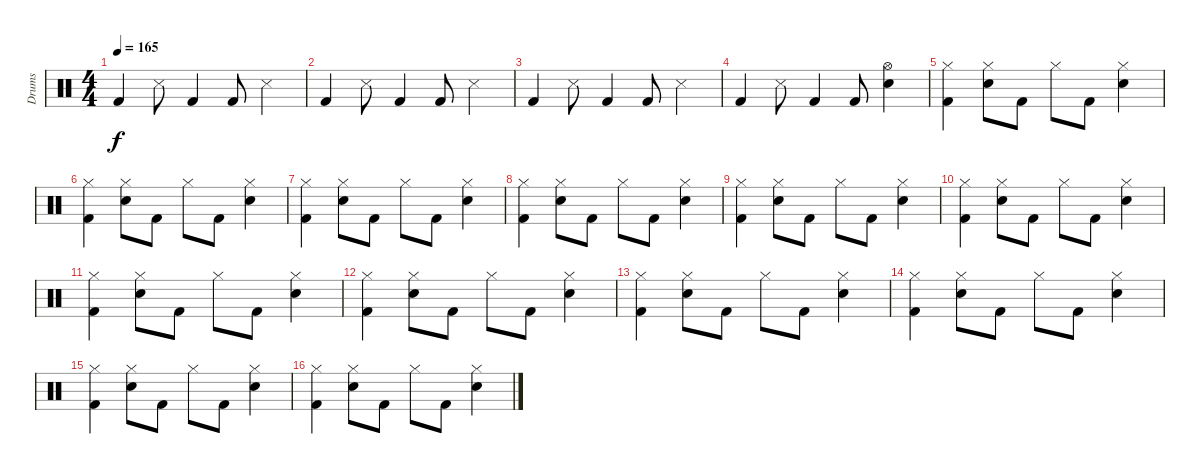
\track ("Drums" "Drums") {instrument percussion}
\staff {score}
\articulation defaults
\ts (4 4)
\tempo 165
\clef neutral
\ks c "Kick (hit) 2".4{dy f} "Snare (side stick) 3".8 "Kick (hit) 2".4 "Kick (hit) 2".8 "Snare (side stick) 3".4
|
"Kick (hit) 2".4 "Snare (side stick) 3".8 "Kick (hit) 2".4 "Kick (hit) 2".8 "Snare (side stick) 3".4 |
"Kick (hit) 2".4 "Snare (side stick) 3".8 "Kick (hit) 2".4 "Kick (hit) 2".8 "Snare (side stick) 3".4 |
"Kick (hit) 2".4 "Snare (side stick) 3".8 "Kick (hit) 2".4 "Kick (hit) 2".8 ("Hi-Hat (open)" "Electric Snare (hit)").4 |
("Hi-Hat (closed)" "Kick (hit) 2").4 ("Hi-Hat (closed)" "Electric Snare (hit)").8 "Kick (hit) 2".8 "Hi-Hat (closed)".8 "Kick (hit) 2".8 ("Hi-Hat (closed)" "Electric Snare (hit)").4 |
("Hi-Hat (closed)" "Kick (hit) 2").4 ("Hi-Hat (closed)" "Electric Snare (hit)").8 "Kick (hit) 2".8 "Hi-Hat (closed)".8 "Kick (hit) 2".8 ("Hi-Hat (closed)" "Electric Snare (hit)").4 |
("Hi-Hat (closed)" "Kick (hit) 2").4 ("Hi-Hat (closed)" "Electric Snare (hit)").8 "Kick (hit) 2".8 "Hi-Hat (closed)".8 "Kick (hit) 2".8 ("Hi-Hat (closed)" "Electric Snare (hit)").4 |
("Hi-Hat (closed)" "Kick (hit) 2").4 ("Hi-Hat (closed)" "Electric Snare (hit)").8 "Kick (hit) 2".8 "Hi-Hat (closed)".8 "Kick (hit) 2".8 ("Hi-Hat (closed)" "Electric Snare (hit)").4 |
("Hi-Hat (closed)" "Kick (hit) 2").4 ("Hi-Hat (closed)" "Electric Snare (hit)").8 "Kick (hit) 2".8 "Hi-Hat (closed)".8 "Kick (hit) 2".8 ("Hi-Hat (closed)" "Electric Snare (hit)").4 |
("Hi-Hat (closed)" "Kick (hit) 2").4 ("Hi-Hat (closed)" "Electric Snare (hit)").8 "Kick (hit) 2".8 "Hi-Hat (closed)".8 "Kick (hit) 2".8 ("Hi-Hat (closed)" "Electric Snare (hit)").4 |
("Hi-Hat (closed)" "Kick (hit) 2").4 ("Hi-Hat (closed)" "Electric Snare (hit)").8 "Kick (hit) 2".8 "Hi-Hat (closed)".8 "Kick (hit) 2".8 ("Hi-Hat (closed)" "Electric Snare (hit)").4 |
("Hi-Hat (closed)" "Kick (hit) 2").4 ("Hi-Hat (closed)" "Electric Snare (hit)").8 "Kick (hit) 2".8 "Hi-Hat (closed)".8 "Kick (hit) 2".8 ("Hi-Hat (closed)" "Electric Snare (hit)").4 |
("Hi-Hat (closed)" "Kick (hit) 2").4 ("Hi-Hat (closed)" "Electric Snare (hit)").8 "Kick (hit) 2".8 "Hi-Hat (closed)".8 "Kick (hit) 2".8 ("Hi-Hat (closed)" "Electric Snare (hit)").4 |
("Hi-Hat (closed)" "Kick (hit) 2").4 ("Hi-Hat (closed)" "Electric Snare (hit)").8 "Kick (hit) 2".8 "Hi-Hat (closed)".8 "Kick (hit) 2".8 ("Hi-Hat (closed)" "Electric Snare (hit)").4 |
("Hi-Hat (closed)" "Kick (hit) 2").4 ("Hi-Hat (closed)" "Electric Snare (hit)").8 "Kick (hit) 2".8 "Hi-Hat (closed)".8 "Kick (hit) 2".8 ("Hi-Hat (closed)" "Electric Snare (hit)").4 |
("Hi-Hat (closed)" "Kick (hit) 2").4 ("Hi-Hat (closed)" "Electric Snare (hit)").8 "Kick (hit) 2".8 "Hi-Hat (closed)".8 "Kick (hit) 2".8 ("Hi-Hat (closed)" "Electric Snare (hit)").4
